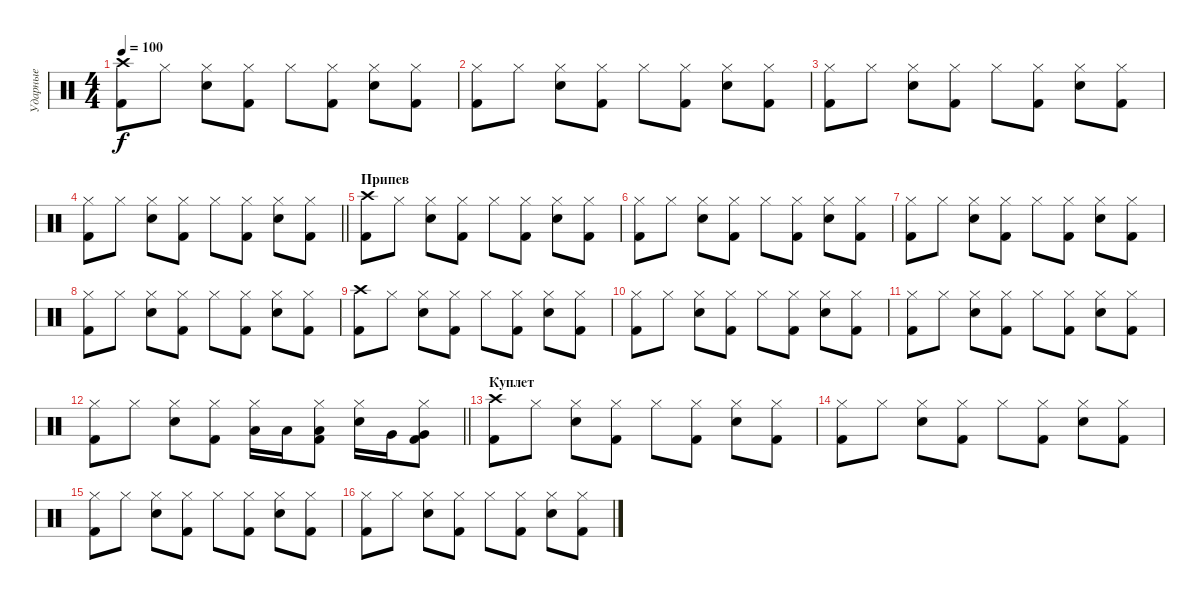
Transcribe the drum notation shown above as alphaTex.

\track ("Ударные" "Ударные") {instrument percussion}
\staff {score}
\articulation defaults
\ts (4 4)
\tempo 100
\clef neutral
\ks c
("Crash high (hit)" "Kick (hit) 2").8{dy f} "Hi-Hat (closed)".8 ("Hi-Hat (closed)" "Snare (hit) 2").8 ("Hi-Hat (closed)" "Kick (hit) 2").8 "Hi-Hat (closed)".8 ("Hi-Hat (closed)" "Kick (hit) 2").8 ("Hi-Hat (closed)" "Snare (hit) 2").8 ("Hi-Hat (closed)" "Kick (hit) 2").8 |
("Hi-Hat (closed)" "Kick (hit) 2").8 "Hi-Hat (closed)".8 ("Hi-Hat (closed)" "Snare (hit) 2").8 ("Hi-Hat (closed)" "Kick (hit) 2").8 "Hi-Hat (closed)".8 ("Hi-Hat (closed)" "Kick (hit) 2").8 ("Hi-Hat (closed)" "Snare (hit) 2").8 ("Hi-Hat (closed)" "Kick (hit) 2").8 |
("Hi-Hat (closed)" "Kick (hit) 2").8 "Hi-Hat (closed)".8 ("Hi-Hat (closed)" "Snare (hit) 2").8 ("Hi-Hat (closed)" "Kick (hit) 2").8 "Hi-Hat (closed)".8 ("Hi-Hat (closed)" "Kick (hit) 2").8 ("Hi-Hat (closed)" "Snare (hit) 2").8 ("Hi-Hat (closed)" "Kick (hit) 2").8 |
\barLineRight lightlight
("Hi-Hat (closed)" "Kick (hit) 2").8 "Hi-Hat (closed)".8 ("Hi-Hat (closed)" "Snare (hit) 2").8 ("Hi-Hat (closed)" "Kick (hit) 2").8 "Hi-Hat (closed)".8 ("Hi-Hat (closed)" "Kick (hit) 2").8 ("Hi-Hat (closed)" "Snare (hit) 2").8 ("Hi-Hat (closed)" "Kick (hit) 2").8 |
\section ("" "Припев")
("Crash high (hit)" "Kick (hit) 2").8 "Hi-Hat (closed)".8 ("Hi-Hat (closed)" "Snare (hit) 2").8 ("Hi-Hat (closed)" "Kick (hit) 2").8 "Hi-Hat (closed)".8 ("Hi-Hat (closed)" "Kick (hit) 2").8 ("Hi-Hat (closed)" "Snare (hit) 2").8 ("Hi-Hat (closed)" "Kick (hit) 2").8 |
("Hi-Hat (closed)" "Kick (hit) 2").8 "Hi-Hat (closed)".8 ("Hi-Hat (closed)" "Snare (hit) 2").8 ("Hi-Hat (closed)" "Kick (hit) 2").8 "Hi-Hat (closed)".8 ("Hi-Hat (closed)" "Kick (hit) 2").8 ("Hi-Hat (closed)" "Snare (hit) 2").8 ("Hi-Hat (closed)" "Kick (hit) 2").8 |
("Hi-Hat (closed)" "Kick (hit) 2").8 "Hi-Hat (closed)".8 ("Hi-Hat (closed)" "Snare (hit) 2").8 ("Hi-Hat (closed)" "Kick (hit) 2").8 "Hi-Hat (closed)".8 ("Hi-Hat (closed)" "Kick (hit) 2").8 ("Hi-Hat (closed)" "Snare (hit) 2").8 ("Hi-Hat (closed)" "Kick (hit) 2").8 |
("Hi-Hat (closed)" "Kick (hit) 2").8 "Hi-Hat (closed)".8 ("Hi-Hat (closed)" "Snare (hit) 2").8 ("Hi-Hat (closed)" "Kick (hit) 2").8 "Hi-Hat (closed)".8 ("Hi-Hat (closed)" "Kick (hit) 2").8 ("Hi-Hat (closed)" "Snare (hit) 2").8 ("Hi-Hat (closed)" "Kick (hit) 2").8 |
("Crash high (hit)" "Kick (hit) 2").8 "Hi-Hat (closed)".8 ("Hi-Hat (closed)" "Snare (hit) 2").8 ("Hi-Hat (closed)" "Kick (hit) 2").8 "Hi-Hat (closed)".8 ("Hi-Hat (closed)" "Kick (hit) 2").8 ("Hi-Hat (closed)" "Snare (hit) 2").8 ("Hi-Hat (closed)" "Kick (hit) 2").8 |
("Hi-Hat (closed)" "Kick (hit) 2").8 "Hi-Hat (closed)".8 ("Hi-Hat (closed)" "Snare (hit) 2").8 ("Hi-Hat (closed)" "Kick (hit) 2").8 "Hi-Hat (closed)".8 ("Hi-Hat (closed)" "Kick (hit) 2").8 ("Hi-Hat (closed)" "Snare (hit) 2").8 ("Hi-Hat (closed)" "Kick (hit) 2").8 |
("Hi-Hat (closed)" "Kick (hit) 2").8 "Hi-Hat (closed)".8 ("Hi-Hat (closed)" "Snare (hit) 2").8 ("Hi-Hat (closed)" "Kick (hit) 2").8 "Hi-Hat (closed)".8 ("Hi-Hat (closed)" "Kick (hit) 2").8 ("Hi-Hat (closed)" "Snare (hit) 2").8 ("Hi-Hat (closed)" "Kick (hit) 2").8 |
\barLineRight lightlight
("Hi-Hat (closed)" "Kick (hit) 2").8 "Hi-Hat (closed)".8 ("Hi-Hat (closed)" "Snare (hit) 2").8 ("Hi-Hat (closed)" "Kick (hit) 2").8 ("Hi-Hat (closed)" "Low Tom (hit)").16 "Low Tom (hit)".16 ("Hi-Hat (closed)" "Low Tom (hit)" "Kick (hit) 2").8 ("Hi-Hat (closed)" "Snare (hit) 2").16 "Very Low Tom (hit)".16 ("Hi-Hat (closed)" "Very Low Tom (hit)" "Kick (hit) 2").8 |
\section ("" "Куплет")
("Crash high (hit)" "Kick (hit) 2").8 "Hi-Hat (closed)".8 ("Hi-Hat (closed)" "Snare (hit) 2").8 ("Hi-Hat (closed)" "Kick (hit) 2").8 "Hi-Hat (closed)".8 ("Hi-Hat (closed)" "Kick (hit) 2").8 ("Hi-Hat (closed)" "Snare (hit) 2").8 ("Hi-Hat (closed)" "Kick (hit) 2").8 |
("Hi-Hat (closed)" "Kick (hit) 2").8 "Hi-Hat (closed)".8 ("Hi-Hat (closed)" "Snare (hit) 2").8 ("Hi-Hat (closed)" "Kick (hit) 2").8 "Hi-Hat (closed)".8 ("Hi-Hat (closed)" "Kick (hit) 2").8 ("Hi-Hat (closed)" "Snare (hit) 2").8 ("Hi-Hat (closed)" "Kick (hit) 2").8 |
("Hi-Hat (closed)" "Kick (hit) 2").8 "Hi-Hat (closed)".8 ("Hi-Hat (closed)" "Snare (hit) 2").8 ("Hi-Hat (closed)" "Kick (hit) 2").8 "Hi-Hat (closed)".8 ("Hi-Hat (closed)" "Kick (hit) 2").8 ("Hi-Hat (closed)" "Snare (hit) 2").8 ("Hi-Hat (closed)" "Kick (hit) 2").8 |
("Hi-Hat (closed)" "Kick (hit) 2").8 "Hi-Hat (closed)".8 ("Hi-Hat (closed)" "Snare (hit) 2").8 ("Hi-Hat (closed)" "Kick (hit) 2").8 "Hi-Hat (closed)".8 ("Hi-Hat (closed)" "Kick (hit) 2").8 ("Hi-Hat (closed)" "Snare (hit) 2").8 ("Hi-Hat (closed)" "Kick (hit) 2").8
